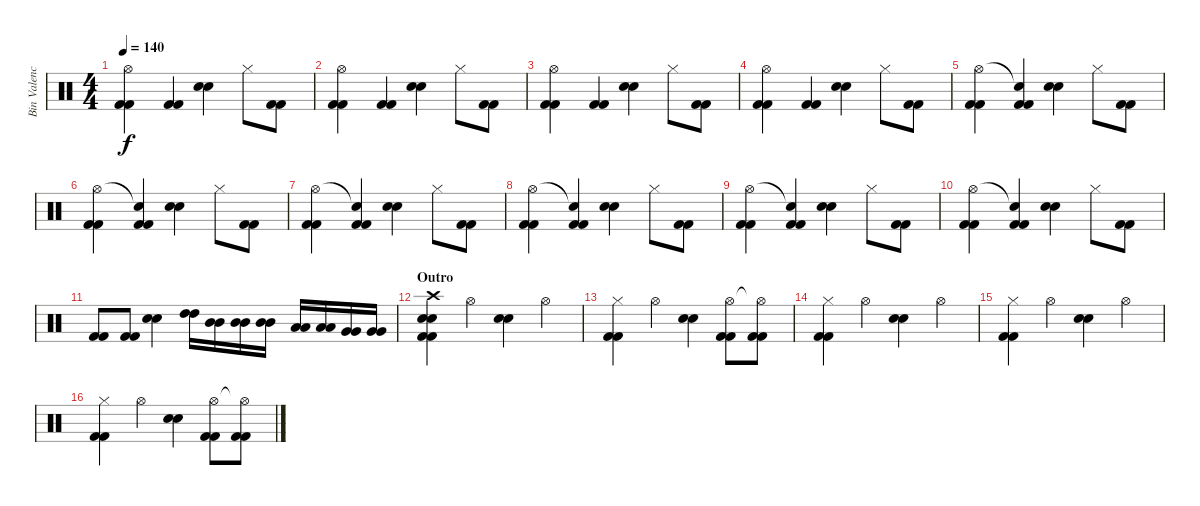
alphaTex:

\track ("Bin Valencia (Bateria)" "Bin Valenc") {instrument percussion}
\staff {score}
\articulation defaults
\ts (4 4)
\tempo 140
\clef neutral
\ks c
("Hi-Hat (open)" "Kick (hit) 2" "Kick (hit) 2").4{dy f} ("Kick (hit) 2" "Kick (hit) 2").4 ("Snare (hit) 2" "Snare (hit) 2").4 "Hi-Hat (closed)".8 ("Kick (hit) 2" "Kick (hit) 2").8 |
("Hi-Hat (open)" "Kick (hit) 2" "Kick (hit) 2").4 ("Kick (hit) 2" "Kick (hit) 2").4 ("Snare (hit) 2" "Snare (hit) 2").4 "Hi-Hat (closed)".8 ("Kick (hit) 2" "Kick (hit) 2").8 |
("Hi-Hat (open)" "Kick (hit) 2" "Kick (hit) 2").4 ("Kick (hit) 2" "Kick (hit) 2").4 ("Snare (hit) 2" "Snare (hit) 2").4 "Hi-Hat (closed)".8 ("Kick (hit) 2" "Kick (hit) 2").8 |
("Hi-Hat (open)" "Kick (hit) 2" "Kick (hit) 2").4 ("Kick (hit) 2" "Kick (hit) 2").4 ("Snare (hit) 2" "Snare (hit) 2").4 "Hi-Hat (closed)".8 ("Kick (hit) 2" "Kick (hit) 2").8 |
("Hi-Hat (open)" "Kick (hit) 2" "Kick (hit) 2").4 ("Snare (hit)"{t} "Kick (hit) 2" "Kick (hit) 2").4 ("Snare (hit) 2" "Snare (hit) 2").4 "Hi-Hat (closed)".8 ("Kick (hit) 2" "Kick (hit) 2").8 |
("Hi-Hat (open)" "Kick (hit) 2" "Kick (hit) 2").4 ("Snare (hit)"{t} "Kick (hit) 2" "Kick (hit) 2").4 ("Snare (hit) 2" "Snare (hit) 2").4 "Hi-Hat (closed)".8 ("Kick (hit) 2" "Kick (hit) 2").8 |
("Hi-Hat (open)" "Kick (hit) 2" "Kick (hit) 2").4 ("Snare (hit)"{t} "Kick (hit) 2" "Kick (hit) 2").4 ("Snare (hit) 2" "Snare (hit) 2").4 "Hi-Hat (closed)".8 ("Kick (hit) 2" "Kick (hit) 2").8 |
("Hi-Hat (open)" "Kick (hit) 2" "Kick (hit) 2").4 ("Snare (hit)"{t} "Kick (hit) 2" "Kick (hit) 2").4 ("Snare (hit) 2" "Snare (hit) 2").4 "Hi-Hat (closed)".8 ("Kick (hit) 2" "Kick (hit) 2").8 |
("Hi-Hat (open)" "Kick (hit) 2" "Kick (hit) 2").4 ("Snare (hit)"{t} "Kick (hit) 2" "Kick (hit) 2").4 ("Snare (hit) 2" "Snare (hit) 2").4 "Hi-Hat (closed)".8 ("Kick (hit) 2" "Kick (hit) 2").8 |
("Hi-Hat (open)" "Kick (hit) 2" "Kick (hit) 2").4 ("Snare (hit)"{t} "Kick (hit) 2" "Kick (hit) 2").4 ("Snare (hit) 2" "Snare (hit) 2").4 "Hi-Hat (closed)".8 ("Kick (hit) 2" "Kick (hit) 2").8 |
("Kick (hit) 2" "Kick (hit) 2").8 ("Kick (hit) 2" "Kick (hit) 2").8 ("Snare (hit) 2" "Snare (hit) 2").4 ("High Tom (hit)" "High Tom (hit)").16 ("Mid Tom (hit)" "Mid Tom (hit)").16 ("Mid Tom (hit)" "Mid Tom (hit)").16 ("Mid Tom (hit)" "Mid Tom (hit)").16 ("Low Tom (hit)" "Low Tom (hit)").16 ("Low Tom (hit)" "Low Tom (hit)").16 ("Very Low Tom (hit)" "Very Low Tom (hit)").16 ("Very Low Tom (hit)" "Very Low Tom (hit)").16 |
\section ("" "Outro")
("Crash high (hit)" "Snare (hit) 2" "Snare (hit) 2" "Kick (hit) 2" "Kick (hit) 2").4 "Hi-Hat (open)".4 ("Snare (hit) 2" "Snare (hit) 2").4 "Hi-Hat (open)".4 |
("Hi-Hat (closed)" "Kick (hit) 2" "Kick (hit) 2").4 "Hi-Hat (open)".4 ("Snare (hit) 2" "Snare (hit) 2").4 ("Hi-Hat (open)" "Kick (hit) 2" "Kick (hit) 2").8 ("Hi-Hat (open)"{t} "Kick (hit) 2" "Kick (hit) 2").8 |
("Hi-Hat (closed)" "Kick (hit) 2" "Kick (hit) 2").4 "Hi-Hat (open)".4 ("Snare (hit) 2" "Snare (hit) 2").4 "Hi-Hat (open)".4 |
("Hi-Hat (closed)" "Kick (hit) 2" "Kick (hit) 2").4 "Hi-Hat (open)".4 ("Snare (hit) 2" "Snare (hit) 2").4 "Hi-Hat (open)".4 |
("Hi-Hat (closed)" "Kick (hit) 2" "Kick (hit) 2").4 "Hi-Hat (open)".4 ("Snare (hit) 2" "Snare (hit) 2").4 ("Hi-Hat (open)" "Kick (hit) 2" "Kick (hit) 2").8 ("Hi-Hat (open)"{t} "Kick (hit) 2" "Kick (hit) 2").8
